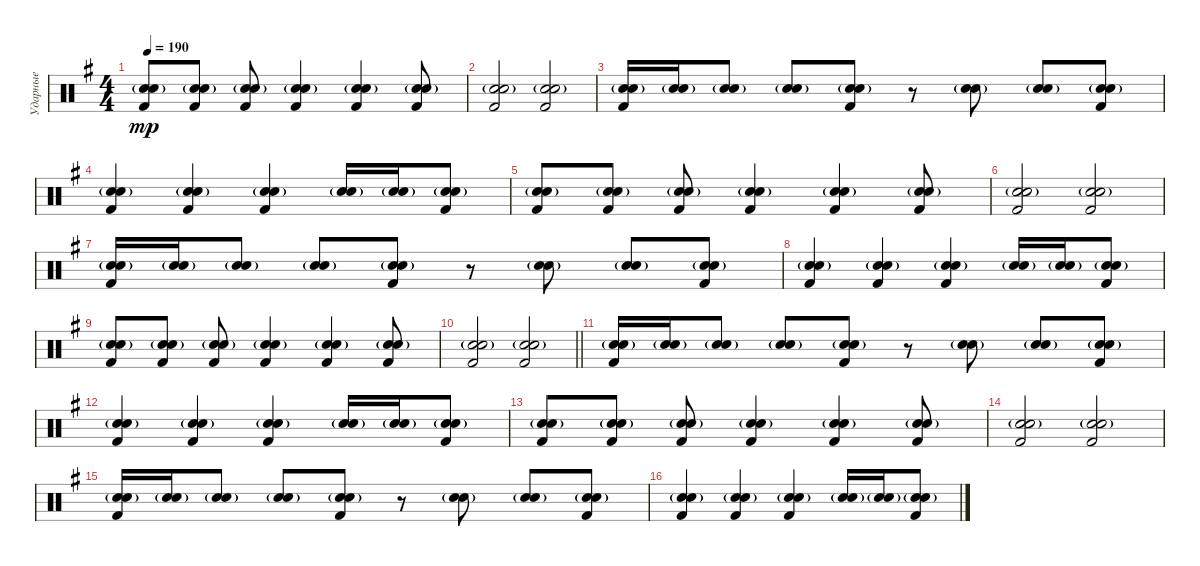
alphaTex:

\track ("Ударные" "Ударные") {instrument percussion}
\staff {score}
\articulation defaults
\ts (4 4)
\tempo 190
\clef neutral
\ks g
("Kick (hit) 2" "Snare (hit) 2"{g} "Electric Snare (hit)").8{dy mp} ("Kick (hit) 2" "Snare (hit) 2"{g} "Electric Snare (hit)").8 ("Kick (hit) 2" "Snare (hit) 2"{g} "Electric Snare (hit)").8 ("Kick (hit) 2" "Snare (hit) 2"{g} "Electric Snare (hit)").4 ("Kick (hit) 2" "Snare (hit) 2"{g} "Electric Snare (hit)").4 ("Kick (hit) 2" "Snare (hit) 2"{g} "Electric Snare (hit)").8 |
("Kick (hit) 2" "Snare (hit) 2"{g} "Electric Snare (hit)").2 ("Kick (hit) 2" "Snare (hit) 2"{g} "Electric Snare (hit)").2 |
("Kick (hit) 2" "Snare (hit) 2"{g} "Electric Snare (hit)").16 ("Snare (hit) 2"{g} "Electric Snare (hit)"{g}).16 ("Snare (hit) 2"{g} "Electric Snare (hit)"{g}).8 ("Snare (hit) 2"{g} "Electric Snare (hit)").8 ("Kick (hit) 2" "Snare (hit) 2"{g} "Electric Snare (hit)").8 r.8 ("Snare (hit) 2"{g} "Electric Snare (hit)").8 ("Snare (hit) 2"{g} "Electric Snare (hit)"{g}).8 ("Kick (hit) 2" "Snare (hit) 2"{g} "Electric Snare (hit)").8 |
("Kick (hit) 2" "Snare (hit) 2"{g} "Electric Snare (hit)").4 ("Kick (hit) 2" "Snare (hit) 2"{g} "Electric Snare (hit)").4 ("Kick (hit) 2" "Snare (hit) 2"{g} "Electric Snare (hit)").4 ("Snare (hit) 2"{g} "Electric Snare (hit)"{g}).16 ("Snare (hit) 2"{g} "Electric Snare (hit)"{g}).16 ("Kick (hit) 2" "Snare (hit) 2"{g} "Electric Snare (hit)").8 |
("Kick (hit) 2" "Snare (hit) 2"{g} "Electric Snare (hit)").8 ("Kick (hit) 2" "Snare (hit) 2"{g} "Electric Snare (hit)").8 ("Kick (hit) 2" "Snare (hit) 2"{g} "Electric Snare (hit)").8 ("Kick (hit) 2" "Snare (hit) 2"{g} "Electric Snare (hit)").4 ("Kick (hit) 2" "Snare (hit) 2"{g} "Electric Snare (hit)").4 ("Kick (hit) 2" "Snare (hit) 2"{g} "Electric Snare (hit)").8 |
("Kick (hit) 2" "Snare (hit) 2"{g} "Electric Snare (hit)").2 ("Kick (hit) 2" "Snare (hit) 2"{g} "Electric Snare (hit)").2 |
("Kick (hit) 2" "Snare (hit) 2"{g} "Electric Snare (hit)").16 ("Snare (hit) 2"{g} "Electric Snare (hit)"{g}).16 ("Snare (hit) 2"{g} "Electric Snare (hit)"{g}).8 ("Snare (hit) 2"{g} "Electric Snare (hit)").8 ("Kick (hit) 2" "Snare (hit) 2"{g} "Electric Snare (hit)").8 r.8 ("Snare (hit) 2"{g} "Electric Snare (hit)").8 ("Snare (hit) 2"{g} "Electric Snare (hit)"{g}).8 ("Kick (hit) 2" "Snare (hit) 2"{g} "Electric Snare (hit)").8 |
("Kick (hit) 2" "Snare (hit) 2"{g} "Electric Snare (hit)").4 ("Kick (hit) 2" "Snare (hit) 2"{g} "Electric Snare (hit)").4 ("Kick (hit) 2" "Snare (hit) 2"{g} "Electric Snare (hit)").4 ("Snare (hit) 2"{g} "Electric Snare (hit)"{g}).16 ("Snare (hit) 2"{g} "Electric Snare (hit)"{g}).16 ("Kick (hit) 2" "Snare (hit) 2"{g} "Electric Snare (hit)").8 |
("Kick (hit) 2" "Snare (hit) 2"{g} "Electric Snare (hit)").8 ("Kick (hit) 2" "Snare (hit) 2"{g} "Electric Snare (hit)").8 ("Kick (hit) 2" "Snare (hit) 2"{g} "Electric Snare (hit)").8 ("Kick (hit) 2" "Snare (hit) 2"{g} "Electric Snare (hit)").4 ("Kick (hit) 2" "Snare (hit) 2"{g} "Electric Snare (hit)").4 ("Kick (hit) 2" "Snare (hit) 2"{g} "Electric Snare (hit)").8 |
\barLineRight lightlight
("Kick (hit) 2" "Snare (hit) 2"{g} "Electric Snare (hit)").2 ("Kick (hit) 2" "Snare (hit) 2"{g} "Electric Snare (hit)").2 |
("Kick (hit) 2" "Snare (hit) 2"{g} "Electric Snare (hit)").16 ("Snare (hit) 2"{g} "Electric Snare (hit)"{g}).16 ("Snare (hit) 2"{g} "Electric Snare (hit)"{g}).8 ("Snare (hit) 2"{g} "Electric Snare (hit)").8 ("Kick (hit) 2" "Snare (hit) 2"{g} "Electric Snare (hit)").8 r.8 ("Snare (hit) 2"{g} "Electric Snare (hit)").8 ("Snare (hit) 2"{g} "Electric Snare (hit)"{g}).8 ("Kick (hit) 2" "Snare (hit) 2"{g} "Electric Snare (hit)").8 |
("Kick (hit) 2" "Snare (hit) 2"{g} "Electric Snare (hit)").4 ("Kick (hit) 2" "Snare (hit) 2"{g} "Electric Snare (hit)").4 ("Kick (hit) 2" "Snare (hit) 2"{g} "Electric Snare (hit)").4 ("Snare (hit) 2"{g} "Electric Snare (hit)"{g}).16 ("Snare (hit) 2"{g} "Electric Snare (hit)"{g}).16 ("Kick (hit) 2" "Snare (hit) 2"{g} "Electric Snare (hit)").8 |
("Kick (hit) 2" "Snare (hit) 2"{g} "Electric Snare (hit)").8 ("Kick (hit) 2" "Snare (hit) 2"{g} "Electric Snare (hit)").8 ("Kick (hit) 2" "Snare (hit) 2"{g} "Electric Snare (hit)").8 ("Kick (hit) 2" "Snare (hit) 2"{g} "Electric Snare (hit)").4 ("Kick (hit) 2" "Snare (hit) 2"{g} "Electric Snare (hit)").4 ("Kick (hit) 2" "Snare (hit) 2"{g} "Electric Snare (hit)").8 |
("Kick (hit) 2" "Snare (hit) 2"{g} "Electric Snare (hit)").2 ("Kick (hit) 2" "Snare (hit) 2"{g} "Electric Snare (hit)").2 |
("Kick (hit) 2" "Snare (hit) 2"{g} "Electric Snare (hit)").16 ("Snare (hit) 2"{g} "Electric Snare (hit)"{g}).16 ("Snare (hit) 2"{g} "Electric Snare (hit)"{g}).8 ("Snare (hit) 2"{g} "Electric Snare (hit)").8 ("Kick (hit) 2" "Snare (hit) 2"{g} "Electric Snare (hit)").8 r.8 ("Snare (hit) 2"{g} "Electric Snare (hit)").8 ("Snare (hit) 2"{g} "Electric Snare (hit)"{g}).8 ("Kick (hit) 2" "Snare (hit) 2"{g} "Electric Snare (hit)").8 |
("Kick (hit) 2" "Snare (hit) 2"{g} "Electric Snare (hit)").4 ("Kick (hit) 2" "Snare (hit) 2"{g} "Electric Snare (hit)").4 ("Kick (hit) 2" "Snare (hit) 2"{g} "Electric Snare (hit)").4 ("Snare (hit) 2"{g} "Electric Snare (hit)"{g}).16 ("Snare (hit) 2"{g} "Electric Snare (hit)"{g}).16 ("Kick (hit) 2" "Snare (hit) 2"{g} "Electric Snare (hit)").8
